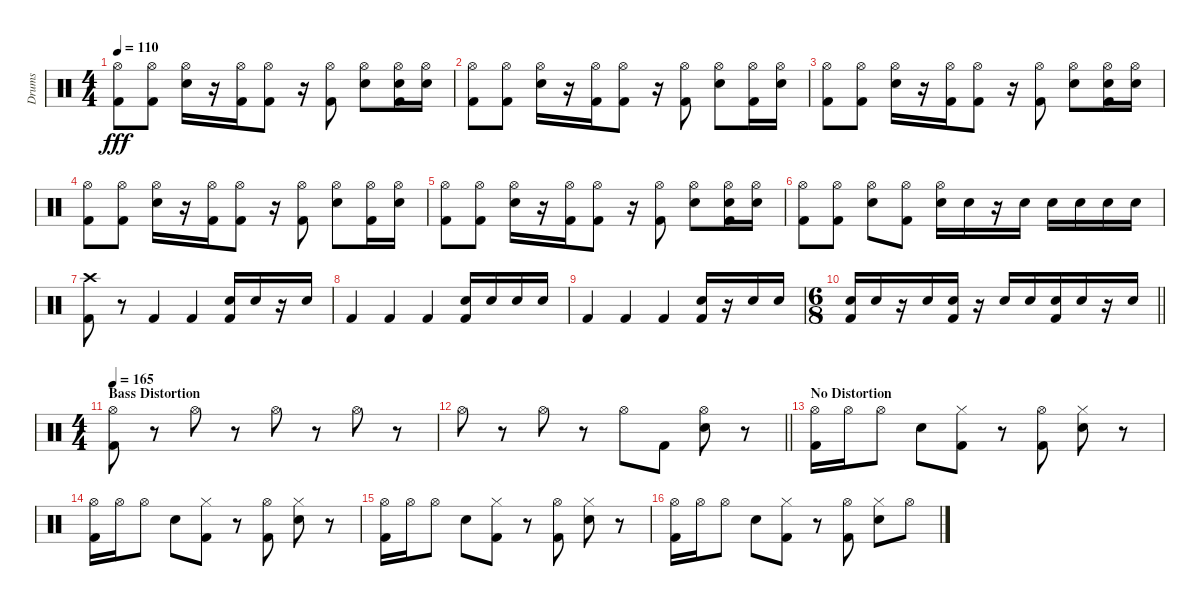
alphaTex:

\track ("Drums" "Drums") {instrument percussion}
\staff {score}
\articulation defaults
\ts (4 4)
\tempo 110
\clef neutral
\ks c
("Hi-Hat (open)" "Kick (hit) 2").8{dy fff} ("Hi-Hat (open)" "Kick (hit) 2").8 ("Hi-Hat (open)" "Snare (hit) 2").16 r.16 ("Hi-Hat (open)" "Kick (hit) 2").16 ("Hi-Hat (open)" "Kick (hit) 2").8 r.16 ("Hi-Hat (open)" "Kick (hit) 2").8 ("Hi-Hat (open)" "Snare (hit) 2").8 ("Hi-Hat (open)" "Snare (hit) 2" "Kick (hit) 2").16 ("Hi-Hat (open)" "Snare (hit) 2").16 |
("Hi-Hat (open)" "Kick (hit) 2").8 ("Hi-Hat (open)" "Kick (hit) 2").8 ("Hi-Hat (open)" "Snare (hit) 2").16 r.16 ("Hi-Hat (open)" "Kick (hit) 2").16 ("Hi-Hat (open)" "Kick (hit) 2").8 r.16 ("Hi-Hat (open)" "Kick (hit) 2").8 ("Hi-Hat (open)" "Snare (hit) 2").8 ("Hi-Hat (open)" "Kick (hit) 2").16 ("Hi-Hat (open)" "Snare (hit) 2").16 |
("Hi-Hat (open)" "Kick (hit) 2").8 ("Hi-Hat (open)" "Kick (hit) 2").8 ("Hi-Hat (open)" "Snare (hit) 2").16 r.16 ("Hi-Hat (open)" "Kick (hit) 2").16 ("Hi-Hat (open)" "Kick (hit) 2").8 r.16 ("Hi-Hat (open)" "Kick (hit) 2").8 ("Hi-Hat (open)" "Snare (hit) 2").8 ("Hi-Hat (open)" "Snare (hit) 2" "Kick (hit) 2").16 ("Hi-Hat (open)" "Snare (hit) 2").16 |
("Hi-Hat (open)" "Kick (hit) 2").8 ("Hi-Hat (open)" "Kick (hit) 2").8 ("Hi-Hat (open)" "Snare (hit) 2").16 r.16 ("Hi-Hat (open)" "Kick (hit) 2").16 ("Hi-Hat (open)" "Kick (hit) 2").8 r.16 ("Hi-Hat (open)" "Kick (hit) 2").8 ("Hi-Hat (open)" "Snare (hit) 2").8 ("Hi-Hat (open)" "Kick (hit) 2").16 ("Hi-Hat (open)" "Snare (hit) 2").16 |
("Hi-Hat (open)" "Kick (hit) 2").8 ("Hi-Hat (open)" "Kick (hit) 2").8 ("Hi-Hat (open)" "Snare (hit) 2").16 r.16 ("Hi-Hat (open)" "Kick (hit) 2").16 ("Hi-Hat (open)" "Kick (hit) 2").8 r.16 ("Hi-Hat (open)" "Kick (hit) 2").8 ("Hi-Hat (open)" "Snare (hit) 2").8 ("Hi-Hat (open)" "Snare (hit) 2" "Kick (hit) 2").16 ("Hi-Hat (open)" "Snare (hit) 2").16 |
("Hi-Hat (open)" "Kick (hit) 2").8 ("Hi-Hat (open)" "Kick (hit) 2").8 ("Hi-Hat (open)" "Snare (hit) 2").8 ("Hi-Hat (open)" "Kick (hit) 2").8 ("Hi-Hat (open)" "Snare (hit) 2").16 "Snare (hit) 2".16 r.16 "Snare (hit) 2".16 "Snare (hit) 2".16 "Snare (hit) 2".16 "Snare (hit) 2".16 "Snare (hit) 2".16 |
("Crash high (hit)" "Kick (hit) 2").8 r.8 "Kick (hit) 2".4 "Kick (hit) 2".4 ("Snare (hit) 2" "Kick (hit) 2").16 "Snare (hit) 2".16 r.16 "Snare (hit) 2".16 |
"Kick (hit) 2".4 "Kick (hit) 2".4 "Kick (hit) 2".4 ("Snare (hit) 2" "Kick (hit) 2").16 "Snare (hit) 2".16 "Snare (hit) 2".16 "Snare (hit) 2".16 |
"Kick (hit) 2".4 "Kick (hit) 2".4 "Kick (hit) 2".4 ("Snare (hit) 2" "Kick (hit) 2").16 r.16 "Snare (hit) 2".16 "Snare (hit) 2".16 |
\ts (6 8)
\barLineRight lightlight
("Snare (hit) 2" "Kick (hit) 2").16 "Snare (hit) 2".16 r.16 "Snare (hit) 2".16 ("Snare (hit) 2" "Kick (hit) 2").16 r.16 "Snare (hit) 2".16 "Snare (hit) 2".16 ("Snare (hit) 2" "Kick (hit) 2").16 "Snare (hit) 2".16 r.16 "Snare (hit) 2".16 |
\ts (4 4)
\section ("" "Bass Distortion")
\tempo 165
("Hi-Hat (open)" "Kick (hit) 2").8 r.8 "Hi-Hat (open)".8 r.8 "Hi-Hat (open)".8 r.8 "Hi-Hat (open)".8 r.8 |
\barLineRight lightlight "Hi-Hat (open)".8
r.8 "Hi-Hat (open)".8 r.8 "Hi-Hat (open)".8 "Kick (hit) 2".8 ("Hi-Hat (open)" "Snare (hit) 2").8 r.8 |
\section ("" "No Distortion")
("Hi-Hat (open)" "Kick (hit) 2").16 "Hi-Hat (open)".16 "Hi-Hat (open)".8 "Snare (hit) 2".8 ("Hi-Hat (closed)" "Kick (hit) 2").8 r.8 ("Hi-Hat (open)" "Kick (hit) 2").8 ("Hi-Hat (closed)" "Snare (hit) 2").8 r.8 |
("Hi-Hat (open)" "Kick (hit) 2").16 "Hi-Hat (open)".16 "Hi-Hat (open)".8 "Snare (hit) 2".8 ("Hi-Hat (closed)" "Kick (hit) 2").8 r.8 ("Hi-Hat (open)" "Kick (hit) 2").8 ("Hi-Hat (closed)" "Snare (hit) 2").8 r.8 |
("Hi-Hat (open)" "Kick (hit) 2").16 "Hi-Hat (open)".16 "Hi-Hat (open)".8 "Snare (hit) 2".8 ("Hi-Hat (closed)" "Kick (hit) 2").8 r.8 ("Hi-Hat (open)" "Kick (hit) 2").8 ("Hi-Hat (closed)" "Snare (hit) 2").8 r.8 |
("Hi-Hat (open)" "Kick (hit) 2").16 "Hi-Hat (open)".16 "Hi-Hat (open)".8 "Snare (hit) 2".8 ("Hi-Hat (closed)" "Kick (hit) 2").8 r.8 ("Hi-Hat (open)" "Kick (hit) 2").8 ("Hi-Hat (closed)" "Snare (hit) 2").8 "Hi-Hat (open)".8
